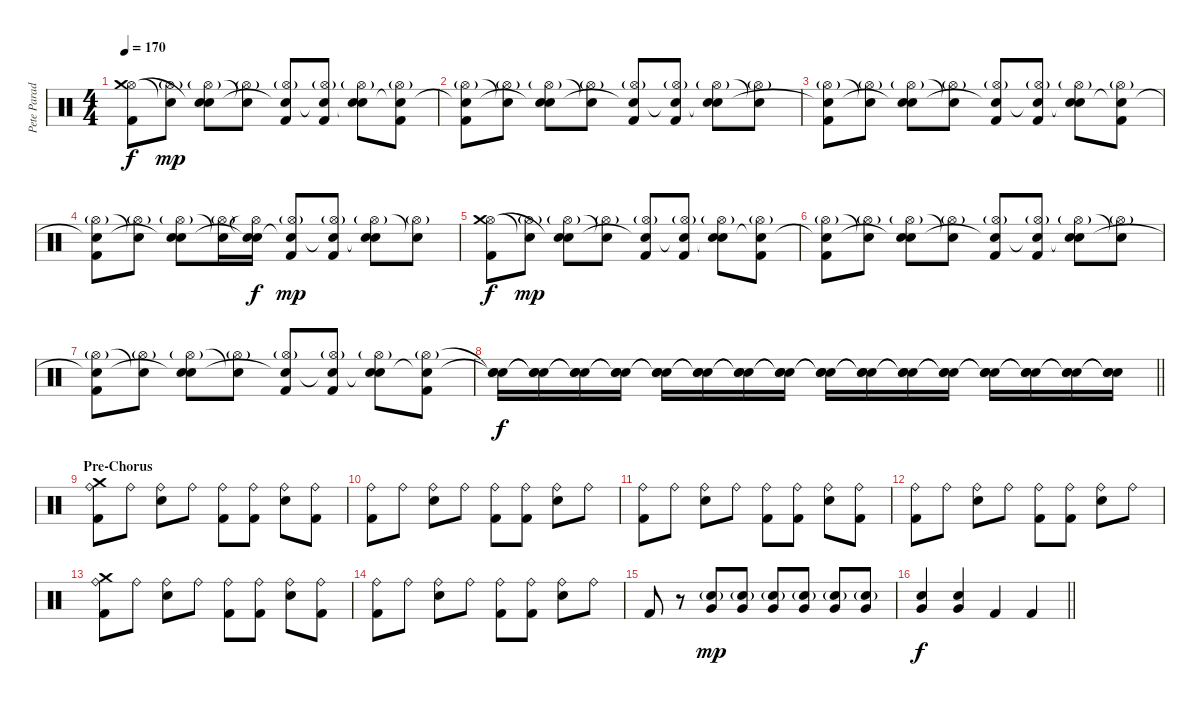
\track ("Pete Parada" "Pete Parad") {instrument percussion}
\staff {score}
\articulation defaults
\ts (4 4)
\tempo 170
\clef neutral
\ks c
("Kick (hit) 2" "Hi-Hat (open)" "Crash medium (hit)").8{dy f} ("Hi-Hat (open)"{g} "Snare (hit)"{t}).8{dy mp} ("Snare (hit) 2" "Hi-Hat (open)"{g} "Snare (hit)"{t}).8 ("Hi-Hat (open)"{g} "Snare (hit)"{t}).8 ("Kick (hit) 2" "Hi-Hat (open)"{g} "Snare (hit)"{t}).8 ("Kick (hit) 2" "Hi-Hat (open)"{g} "Snare (hit)"{t}).8 ("Snare (hit) 2" "Hi-Hat (open)"{g} "Snare (hit)"{t}).8 ("Kick (hit) 2" "Hi-Hat (open)"{g} "Snare (hit)"{t}).8 |
("Kick (hit) 2" "Hi-Hat (open)"{g} "Snare (hit)"{t}).8 ("Hi-Hat (open)"{g} "Snare (hit)"{t}).8 ("Snare (hit) 2" "Hi-Hat (open)"{g} "Snare (hit)"{t}).8 ("Hi-Hat (open)"{g} "Snare (hit)"{t}).8 ("Kick (hit) 2" "Hi-Hat (open)"{g} "Snare (hit)"{t}).8 ("Kick (hit) 2" "Hi-Hat (open)"{g} "Snare (hit)"{t}).8 ("Snare (hit) 2" "Hi-Hat (open)"{g} "Snare (hit)"{t}).8 ("Hi-Hat (open)"{g} "Snare (hit)"{t}).8 |
("Kick (hit) 2" "Hi-Hat (open)"{g} "Snare (hit)"{t}).8 ("Hi-Hat (open)"{g} "Snare (hit)"{t}).8 ("Snare (hit) 2" "Hi-Hat (open)"{g} "Snare (hit)"{t}).8 ("Hi-Hat (open)"{g} "Snare (hit)"{t}).8 ("Kick (hit) 2" "Hi-Hat (open)"{g} "Snare (hit)"{t}).8 ("Kick (hit) 2" "Hi-Hat (open)"{g} "Snare (hit)"{t}).8 ("Snare (hit) 2" "Hi-Hat (open)"{g} "Snare (hit)"{t}).8 ("Kick (hit) 2" "Hi-Hat (open)"{g} "Snare (hit)"{t}).8 |
("Kick (hit) 2" "Hi-Hat (open)"{g} "Snare (hit)"{t}).8 ("Hi-Hat (open)"{g} "Snare (hit)"{t}).8 ("Snare (hit) 2" "Hi-Hat (open)"{g} "Snare (hit)"{t}).8 ("Hi-Hat (open)"{g} "Snare (hit)"{t}).16 ("Snare (hit) 2" "Hi-Hat (open)"{t} "Snare (hit)"{t}).16{dy f} ("Kick (hit) 2" "Hi-Hat (open)"{g} "Snare (hit)"{t}).8{dy mp} ("Kick (hit) 2" "Hi-Hat (open)"{g} "Snare (hit)"{t}).8 ("Snare (hit) 2" "Hi-Hat (open)"{g} "Snare (hit)"{t}).8 ("Hi-Hat (open)"{g} "Snare (hit)"{t}).8 |
("Kick (hit) 2" "Hi-Hat (open)" "Crash medium (hit)").8{dy f} ("Hi-Hat (open)"{g} "Snare (hit)"{t}).8{dy mp} ("Snare (hit) 2" "Hi-Hat (open)"{g} "Snare (hit)"{t}).8 ("Hi-Hat (open)"{g} "Snare (hit)"{t}).8 ("Kick (hit) 2" "Hi-Hat (open)"{g} "Snare (hit)"{t}).8 ("Kick (hit) 2" "Hi-Hat (open)"{g} "Snare (hit)"{t}).8 ("Snare (hit) 2" "Hi-Hat (open)"{g} "Snare (hit)"{t}).8 ("Kick (hit) 2" "Hi-Hat (open)"{g} "Snare (hit)"{t}).8 |
("Kick (hit) 2" "Hi-Hat (open)"{g} "Snare (hit)"{t}).8 ("Hi-Hat (open)"{g} "Snare (hit)"{t}).8 ("Snare (hit) 2" "Hi-Hat (open)"{g} "Snare (hit)"{t}).8 ("Hi-Hat (open)"{g} "Snare (hit)"{t}).8 ("Kick (hit) 2" "Hi-Hat (open)"{g} "Snare (hit)"{t}).8 ("Kick (hit) 2" "Hi-Hat (open)"{g} "Snare (hit)"{t}).8 ("Snare (hit) 2" "Hi-Hat (open)"{g} "Snare (hit)"{t}).8 ("Hi-Hat (open)"{g} "Snare (hit)"{t}).8 |
("Kick (hit) 2" "Hi-Hat (open)"{g} "Snare (hit)"{t}).8 ("Hi-Hat (open)"{g} "Snare (hit)"{t}).8 ("Snare (hit) 2" "Hi-Hat (open)"{g} "Snare (hit)"{t}).8 ("Hi-Hat (open)"{g} "Snare (hit)"{t}).8 ("Kick (hit) 2" "Hi-Hat (open)"{g} "Snare (hit)"{t}).8 ("Kick (hit) 2" "Hi-Hat (open)"{g} "Snare (hit)"{t}).8 ("Snare (hit) 2" "Hi-Hat (open)"{g} "Snare (hit)"{t}).8 ("Kick (hit) 2" "Hi-Hat (open)"{g} "Snare (hit)"{t}).8 |
\barLineRight lightlight
("Snare (hit) 2" "Snare (hit)"{t} "Snare (hit)"{t}).16{dy f} ("Snare (hit) 2" "Snare (hit)"{t} "Snare (hit)"{t}).16 ("Snare (hit) 2" "Snare (hit)"{t} "Snare (hit)"{t}).16 ("Snare (hit) 2" "Snare (hit)"{t} "Snare (hit)"{t}).16 ("Snare (hit) 2" "Snare (hit)"{t} "Snare (hit)"{t}).16 ("Snare (hit) 2" "Snare (hit)"{t} "Snare (hit)"{t}).16 ("Snare (hit) 2" "Snare (hit)"{t} "Snare (hit)"{t}).16 ("Snare (hit) 2" "Snare (hit)"{t} "Snare (hit)"{t}).16 ("Snare (hit) 2" "Snare (hit)"{t} "Snare (hit)"{t}).16 ("Snare (hit) 2" "Snare (hit)"{t} "Snare (hit)"{t}).16 ("Snare (hit) 2" "Snare (hit)"{t} "Snare (hit)"{t}).16 ("Snare (hit) 2" "Snare (hit)"{t} "Snare (hit)"{t}).16 ("Snare (hit) 2" "Snare (hit)"{t} "Snare (hit)"{t}).16 ("Snare (hit) 2" "Snare (hit)"{t} "Snare (hit)"{t}).16 ("Snare (hit) 2" "Snare (hit)"{t} "Snare (hit)"{t}).16 ("Snare (hit) 2" "Snare (hit)"{t} "Snare (hit)"{t}).16 |
\section ("" "Pre-Chorus")
("Kick (hit) 2" "Ride (bell)" "Crash medium (hit)").8 "Ride (bell)".8 ("Snare (hit) 2" "Ride (bell)").8 "Ride (bell)".8 ("Kick (hit) 2" "Ride (bell)").8 ("Kick (hit) 2" "Ride (bell)").8 ("Snare (hit) 2" "Ride (bell)").8 ("Kick (hit) 2" "Ride (bell)").8 |
("Kick (hit) 2" "Ride (bell)").8 "Ride (bell)".8 ("Snare (hit) 2" "Ride (bell)").8 "Ride (bell)".8 ("Kick (hit) 2" "Ride (bell)").8 ("Kick (hit) 2" "Ride (bell)").8 ("Snare (hit) 2" "Ride (bell)").8 "Ride (bell)".8 |
("Kick (hit) 2" "Ride (bell)").8 "Ride (bell)".8 ("Snare (hit) 2" "Ride (bell)").8 "Ride (bell)".8 ("Kick (hit) 2" "Ride (bell)").8 ("Kick (hit) 2" "Ride (bell)").8 ("Snare (hit) 2" "Ride (bell)").8 ("Kick (hit) 2" "Ride (bell)").8 |
("Kick (hit) 2" "Ride (bell)").8 "Ride (bell)".8 ("Snare (hit) 2" "Ride (bell)").8 "Ride (bell)".8 ("Kick (hit) 2" "Ride (bell)").8 ("Kick (hit) 2" "Ride (bell)").8 ("Snare (hit) 2" "Ride (bell)").8 "Ride (bell)".8 |
("Kick (hit) 2" "Ride (bell)" "Crash medium (hit)").8 "Ride (bell)".8 ("Snare (hit) 2" "Ride (bell)").8 "Ride (bell)".8 ("Kick (hit) 2" "Ride (bell)").8 ("Kick (hit) 2" "Ride (bell)").8 ("Snare (hit) 2" "Ride (bell)").8 ("Kick (hit) 2" "Ride (bell)").8 |
("Kick (hit) 2" "Ride (bell)").8 "Ride (bell)".8 ("Snare (hit) 2" "Ride (bell)").8 "Ride (bell)".8 ("Kick (hit) 2" "Ride (bell)").8 ("Kick (hit) 2" "Ride (bell)").8 ("Snare (hit) 2" "Ride (bell)").8 "Ride (bell)".8 |
"Kick (hit) 2".8 r.8 ("Snare (hit) 2"{g} "Very Low Tom (hit)").8{dy mp} ("Snare (hit) 2"{g} "Very Low Tom (hit)").8 ("Snare (hit) 2"{g} "Very Low Tom (hit)").8 ("Snare (hit) 2"{g} "Very Low Tom (hit)").8 ("Snare (hit) 2"{g} "Very Low Tom (hit)").8 ("Snare (hit) 2"{g} "Very Low Tom (hit)").8 |
\barLineRight lightlight
("Snare (hit) 2" "Very Low Tom (hit)").4{dy f} ("Snare (hit) 2" "Very Low Tom (hit)").4 "Kick (hit) 2".4 "Kick (hit) 2".4
